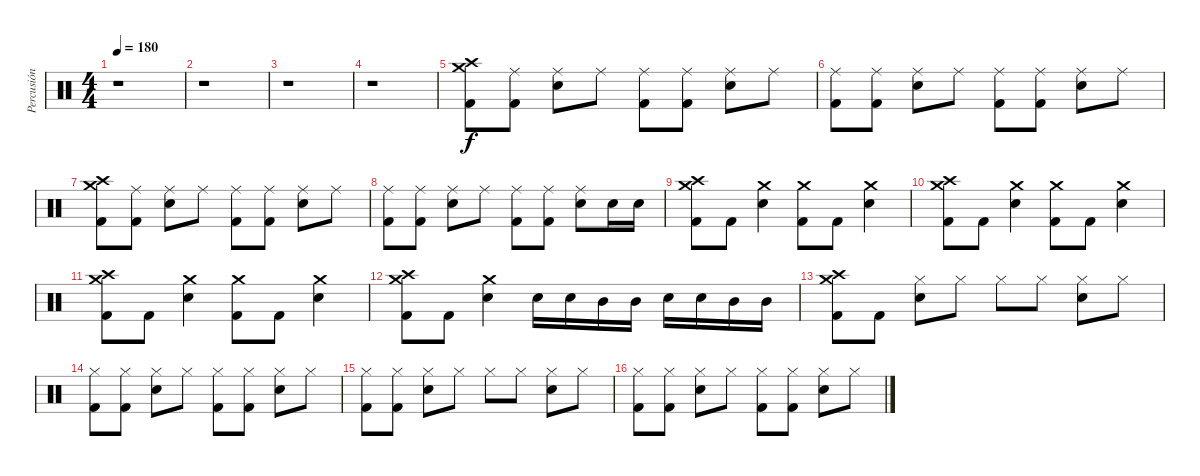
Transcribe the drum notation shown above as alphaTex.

\track ("Percusión" "Percusión") {instrument percussion}
\staff {score}
\articulation defaults
\ts (4 4)
\tempo 180
\clef neutral
\ks c
r.1{dy f} |
r.1 |
r.1 |
r.1 |
("Crash medium (hit)" "Crash high (hit)" "Kick (hit) 2").8 ("Ride (middle)" "Kick (hit) 2").8 ("Ride (middle)" "Electric Snare (hit)").8 "Ride (middle)".8 ("Ride (middle)" "Kick (hit) 2").8 ("Ride (middle)" "Kick (hit) 2").8 ("Ride (middle)" "Electric Snare (hit)").8 "Ride (middle)".8 |
("Ride (middle)" "Kick (hit) 2").8 ("Ride (middle)" "Kick (hit) 2").8 ("Ride (middle)" "Electric Snare (hit)").8 "Ride (middle)".8 ("Ride (middle)" "Kick (hit) 2").8 ("Ride (middle)" "Kick (hit) 2").8 ("Ride (middle)" "Electric Snare (hit)").8 "Ride (middle)".8 |
("Crash medium (hit)" "Crash high (hit)" "Kick (hit) 2").8 ("Ride (middle)" "Kick (hit) 2").8 ("Ride (middle)" "Electric Snare (hit)").8 "Ride (middle)".8 ("Ride (middle)" "Kick (hit) 2").8 ("Ride (middle)" "Kick (hit) 2").8 ("Ride (middle)" "Electric Snare (hit)").8 "Ride (middle)".8 |
("Ride (middle)" "Kick (hit) 2").8 ("Ride (middle)" "Kick (hit) 2").8 ("Ride (middle)" "Electric Snare (hit)").8 "Ride (middle)".8 ("Ride (middle)" "Kick (hit) 2").8 ("Ride (middle)" "Kick (hit) 2").8 ("Ride (middle)" "Electric Snare (hit)").8 "Electric Snare (hit)".16 "Electric Snare (hit)".16 |
("Crash high (hit)" "Crash medium (hit)" "Kick (hit) 2").8 "Kick (hit) 2".8 ("Crash medium (hit)" "Electric Snare (hit)").4 ("Crash medium (hit)" "Kick (hit) 2").8 "Kick (hit) 2".8 ("Crash medium (hit)" "Electric Snare (hit)").4 |
("Crash high (hit)" "Crash medium (hit)" "Kick (hit) 2").8 "Kick (hit) 2".8 ("Crash medium (hit)" "Electric Snare (hit)").4 ("Crash medium (hit)" "Kick (hit) 2").8 "Kick (hit) 2".8 ("Crash medium (hit)" "Electric Snare (hit)").4 |
("Crash high (hit)" "Crash medium (hit)" "Kick (hit) 2").8 "Kick (hit) 2".8 ("Crash medium (hit)" "Electric Snare (hit)").4 ("Crash medium (hit)" "Kick (hit) 2").8 "Kick (hit) 2".8 ("Crash medium (hit)" "Electric Snare (hit)").4 |
("Crash high (hit)" "Crash medium (hit)" "Kick (hit) 2").8 "Kick (hit) 2".8 ("Crash medium (hit)" "Electric Snare (hit)").4 "Electric Snare (hit)".16 "Electric Snare (hit)".16 "Mid Tom (hit)".16 "Mid Tom (hit)".16 "Electric Snare (hit)".16 "Electric Snare (hit)".16 "Mid Tom (hit)".16 "Mid Tom (hit)".16 |
("Crash high (hit)" "Crash medium (hit)" "Kick (hit) 2").8 "Kick (hit) 2".8 ("Hi-Hat (closed)" "Electric Snare (hit)").8 "Hi-Hat (closed)".8 "Hi-Hat (closed)".8 "Hi-Hat (closed)".8 ("Hi-Hat (closed)" "Electric Snare (hit)").8 "Hi-Hat (closed)".8 |
("Hi-Hat (closed)" "Kick (hit) 2").8 ("Hi-Hat (closed)" "Kick (hit) 2").8 ("Hi-Hat (closed)" "Electric Snare (hit)").8 "Hi-Hat (closed)".8 ("Hi-Hat (closed)" "Kick (hit) 2").8 ("Hi-Hat (closed)" "Kick (hit) 2").8 ("Hi-Hat (closed)" "Electric Snare (hit)").8 "Hi-Hat (closed)".8 |
("Hi-Hat (closed)" "Kick (hit) 2").8 ("Hi-Hat (closed)" "Kick (hit) 2").8 ("Hi-Hat (closed)" "Electric Snare (hit)").8 "Hi-Hat (closed)".8 "Hi-Hat (closed)".8 "Hi-Hat (closed)".8 ("Hi-Hat (closed)" "Electric Snare (hit)").8 "Hi-Hat (closed)".8 |
("Hi-Hat (closed)" "Kick (hit) 2").8 ("Hi-Hat (closed)" "Kick (hit) 2").8 ("Hi-Hat (closed)" "Electric Snare (hit)").8 "Hi-Hat (closed)".8 ("Hi-Hat (closed)" "Kick (hit) 2").8 ("Hi-Hat (closed)" "Kick (hit) 2").8 ("Hi-Hat (closed)" "Electric Snare (hit)").8 "Hi-Hat (closed)".8
